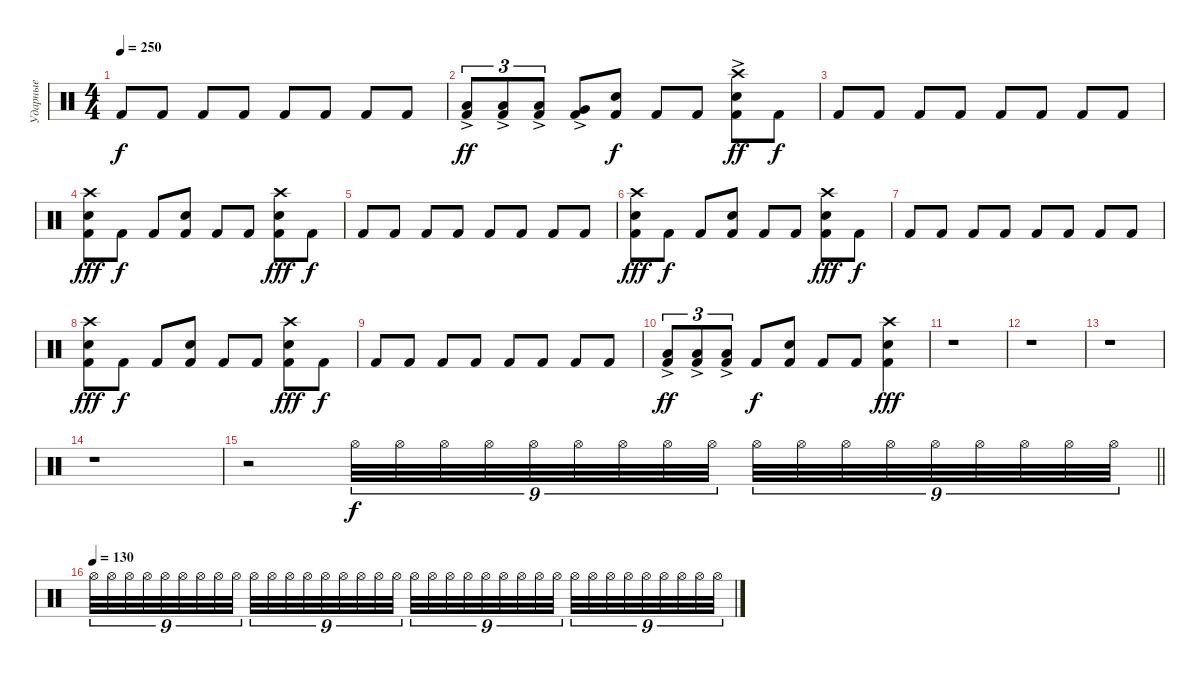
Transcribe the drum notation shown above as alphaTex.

\track ("Ударные" "Ударные") {instrument percussion}
\staff {score}
\articulation defaults
\ts (4 4)
\tempo 250
\clef neutral
\ks c "Kick (hit) 2".8{dy f} "Kick (hit) 2".8 "Kick (hit) 2".8 "Kick (hit) 2".8 "Kick (hit) 2".8 "Kick (hit) 2".8 "Kick (hit) 2".8 "Kick (hit) 2".8
|
("Kick (hit) 2" "Low Tom (hit)"{ac}).8{tu (3 2) dy ff} ("Kick (hit) 2" "Low Tom (hit)"{ac}).8{tu (3 2)} ("Kick (hit) 2" "Low Tom (hit)"{ac}).8{tu (3 2)} ("Kick (hit) 2" "Very Low Tom (hit)"{ac}).8 ("Kick (hit) 2" "Snare (hit) 2").8{dy f} "Kick (hit) 2".8 "Kick (hit) 2".8 ("Kick (hit) 2" "Snare (hit) 2" "Crash high (hit)"{ac}).8{dy ff} "Kick (hit) 2".8{dy f} |
"Kick (hit) 2".8 "Kick (hit) 2".8 "Kick (hit) 2".8 "Kick (hit) 2".8 "Kick (hit) 2".8 "Kick (hit) 2".8 "Kick (hit) 2".8 "Kick (hit) 2".8 |
("Kick (hit) 2" "Snare (hit) 2" "Crash high (hit)").8{dy fff} "Kick (hit) 2".8{dy f} "Kick (hit) 2".8 ("Kick (hit) 2" "Snare (hit) 2").8 "Kick (hit) 2".8 "Kick (hit) 2".8 ("Kick (hit) 2" "Snare (hit) 2" "Crash high (hit)").8{dy fff} "Kick (hit) 2".8{dy f} |
"Kick (hit) 2".8 "Kick (hit) 2".8 "Kick (hit) 2".8 "Kick (hit) 2".8 "Kick (hit) 2".8 "Kick (hit) 2".8 "Kick (hit) 2".8 "Kick (hit) 2".8 |
("Kick (hit) 2" "Snare (hit) 2" "Crash high (hit)").8{dy fff} "Kick (hit) 2".8{dy f} "Kick (hit) 2".8 ("Kick (hit) 2" "Snare (hit) 2").8 "Kick (hit) 2".8 "Kick (hit) 2".8 ("Kick (hit) 2" "Snare (hit) 2" "Crash high (hit)").8{dy fff} "Kick (hit) 2".8{dy f} |
"Kick (hit) 2".8 "Kick (hit) 2".8 "Kick (hit) 2".8 "Kick (hit) 2".8 "Kick (hit) 2".8 "Kick (hit) 2".8 "Kick (hit) 2".8 "Kick (hit) 2".8 |
("Kick (hit) 2" "Snare (hit) 2" "Crash high (hit)").8{dy fff} "Kick (hit) 2".8{dy f} "Kick (hit) 2".8 ("Kick (hit) 2" "Snare (hit) 2").8 "Kick (hit) 2".8 "Kick (hit) 2".8 ("Kick (hit) 2" "Snare (hit) 2" "Crash high (hit)").8{dy fff} "Kick (hit) 2".8{dy f} |
"Kick (hit) 2".8 "Kick (hit) 2".8 "Kick (hit) 2".8 "Kick (hit) 2".8 "Kick (hit) 2".8 "Kick (hit) 2".8 "Kick (hit) 2".8 "Kick (hit) 2".8 |
("Kick (hit) 2" "Low Tom (hit)"{ac}).8{tu (3 2) dy ff} ("Kick (hit) 2" "Low Tom (hit)"{ac}).8{tu (3 2)} ("Kick (hit) 2" "Low Tom (hit)"{ac}).8{tu (3 2)} "Kick (hit) 2".8{dy f} ("Kick (hit) 2" "Snare (hit) 2").8 "Kick (hit) 2".8 "Kick (hit) 2".8 ("Kick (hit) 2" "Snare (hit) 2" "Crash high (hit)").4{dy fff} |
r.1 |
r.1 |
r.1 |
r.1 |
\barLineRight lightlight
r.2 "Hi-Hat (open)".32{tu (9 8) dy f} "Hi-Hat (open)".32{tu (9 8)} "Hi-Hat (open)".32{tu (9 8)} "Hi-Hat (open)".32{tu (9 8)} "Hi-Hat (open)".32{tu (9 8)} "Hi-Hat (open)".32{tu (9 8)} "Hi-Hat (open)".32{tu (9 8)} "Hi-Hat (open)".32{tu (9 8)} "Hi-Hat (open)".32{tu (9 8)} "Hi-Hat (open)".32{tu (9 8)} "Hi-Hat (open)".32{tu (9 8)} "Hi-Hat (open)".32{tu (9 8)} "Hi-Hat (open)".32{tu (9 8)} "Hi-Hat (open)".32{tu (9 8)} "Hi-Hat (open)".32{tu (9 8)} "Hi-Hat (open)".32{tu (9 8)} "Hi-Hat (open)".32{tu (9 8)} "Hi-Hat (open)".32{tu (9 8)} |
\tempo (130)
"Hi-Hat (open)".32{tu (9 8)} "Hi-Hat (open)".32{tu (9 8)} "Hi-Hat (open)".32{tu (9 8)} "Hi-Hat (open)".32{tu (9 8)} "Hi-Hat (open)".32{tu (9 8)} "Hi-Hat (open)".32{tu (9 8)} "Hi-Hat (open)".32{tu (9 8)} "Hi-Hat (open)".32{tu (9 8)} "Hi-Hat (open)".32{tu (9 8)} "Hi-Hat (open)".32{tu (9 8)} "Hi-Hat (open)".32{tu (9 8)} "Hi-Hat (open)".32{tu (9 8)} "Hi-Hat (open)".32{tu (9 8)} "Hi-Hat (open)".32{tu (9 8)} "Hi-Hat (open)".32{tu (9 8)} "Hi-Hat (open)".32{tu (9 8)} "Hi-Hat (open)".32{tu (9 8)} "Hi-Hat (open)".32{tu (9 8)} "Hi-Hat (open)".32{tu (9 8)} "Hi-Hat (open)".32{tu (9 8)} "Hi-Hat (open)".32{tu (9 8)} "Hi-Hat (open)".32{tu (9 8)} "Hi-Hat (open)".32{tu (9 8)} "Hi-Hat (open)".32{tu (9 8)} "Hi-Hat (open)".32{tu (9 8)} "Hi-Hat (open)".32{tu (9 8)} "Hi-Hat (open)".32{tu (9 8)} "Hi-Hat (open)".32{tu (9 8)} "Hi-Hat (open)".32{tu (9 8)} "Hi-Hat (open)".32{tu (9 8)} "Hi-Hat (open)".32{tu (9 8)} "Hi-Hat (open)".32{tu (9 8)} "Hi-Hat (open)".32{tu (9 8)} "Hi-Hat (open)".32{tu (9 8)} "Hi-Hat (open)".32{tu (9 8)} "Hi-Hat (open)".32{tu (9 8)}
